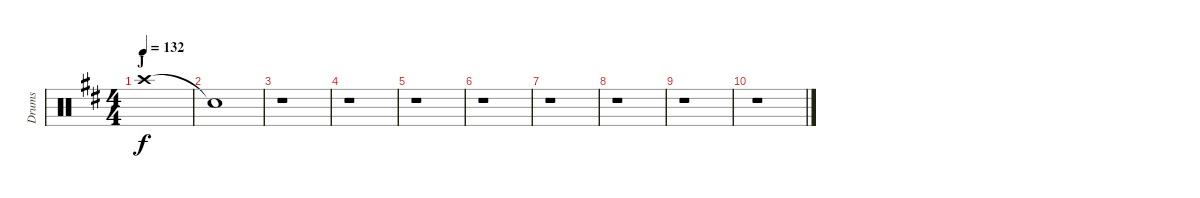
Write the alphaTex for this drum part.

\track ("Drums" "Drums") {instrument percussion}
\staff {score}
\articulation defaults
\ts (4 4)
\section ("" "J")
\tempo 132
\clef neutral
\ks d "Crash high (hit)".1{dy f}
|
"Snare (hit)"{t}.1 |
r.1 |
r.1 |
r.1 |
r.1 |
r.1 |
r.1 |
r.1 |
r.1
